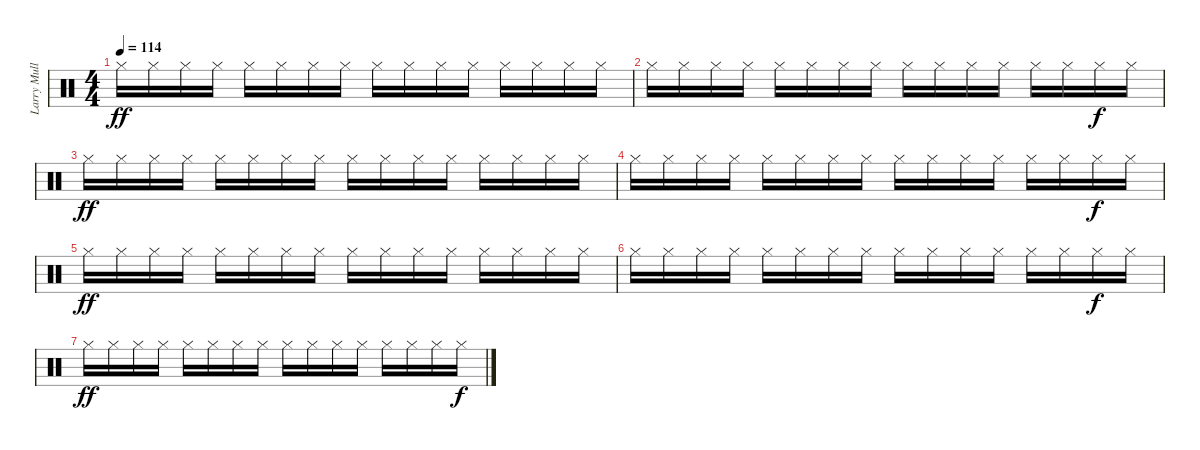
\track ("Larry Mullen Jr suplement for midi" "Larry Mull") {instrument percussion}
\staff {score}
\articulation defaults
\ts (4 4)
\tempo 114
\clef neutral
\ks c "Hi-Hat (closed)".16{dy ff} "Hi-Hat (closed)".16 "Hi-Hat (closed)".16 "Hi-Hat (closed)".16 "Hi-Hat (closed)".16 "Hi-Hat (closed)".16 "Hi-Hat (closed)".16 "Hi-Hat (closed)".16 "Hi-Hat (closed)".16 "Hi-Hat (closed)".16 "Hi-Hat (closed)".16 "Hi-Hat (closed)".16 "Hi-Hat (closed)".16 "Hi-Hat (closed)".16 "Hi-Hat (closed)".16 "Hi-Hat (closed)".16
|
"Hi-Hat (closed)".16 "Hi-Hat (closed)".16 "Hi-Hat (closed)".16 "Hi-Hat (closed)".16 "Hi-Hat (closed)".16 "Hi-Hat (closed)".16 "Hi-Hat (closed)".16 "Hi-Hat (closed)".16 "Hi-Hat (closed)".16 "Hi-Hat (closed)".16 "Hi-Hat (closed)".16 "Hi-Hat (closed)".16 "Hi-Hat (closed)".16 "Hi-Hat (closed)".16 "Hi-Hat (closed)".16{dy f} "Hi-Hat (closed)".16 |
"Hi-Hat (closed)".16{dy ff} "Hi-Hat (closed)".16 "Hi-Hat (closed)".16 "Hi-Hat (closed)".16 "Hi-Hat (closed)".16 "Hi-Hat (closed)".16 "Hi-Hat (closed)".16 "Hi-Hat (closed)".16 "Hi-Hat (closed)".16 "Hi-Hat (closed)".16 "Hi-Hat (closed)".16 "Hi-Hat (closed)".16 "Hi-Hat (closed)".16 "Hi-Hat (closed)".16 "Hi-Hat (closed)".16 "Hi-Hat (closed)".16 |
"Hi-Hat (closed)".16 "Hi-Hat (closed)".16 "Hi-Hat (closed)".16 "Hi-Hat (closed)".16 "Hi-Hat (closed)".16 "Hi-Hat (closed)".16 "Hi-Hat (closed)".16 "Hi-Hat (closed)".16 "Hi-Hat (closed)".16 "Hi-Hat (closed)".16 "Hi-Hat (closed)".16 "Hi-Hat (closed)".16 "Hi-Hat (closed)".16 "Hi-Hat (closed)".16 "Hi-Hat (closed)".16{dy f} "Hi-Hat (closed)".16 |
"Hi-Hat (closed)".16{dy ff} "Hi-Hat (closed)".16 "Hi-Hat (closed)".16 "Hi-Hat (closed)".16 "Hi-Hat (closed)".16 "Hi-Hat (closed)".16 "Hi-Hat (closed)".16 "Hi-Hat (closed)".16 "Hi-Hat (closed)".16 "Hi-Hat (closed)".16 "Hi-Hat (closed)".16 "Hi-Hat (closed)".16 "Hi-Hat (closed)".16 "Hi-Hat (closed)".16 "Hi-Hat (closed)".16 "Hi-Hat (closed)".16 |
"Hi-Hat (closed)".16 "Hi-Hat (closed)".16 "Hi-Hat (closed)".16 "Hi-Hat (closed)".16 "Hi-Hat (closed)".16 "Hi-Hat (closed)".16 "Hi-Hat (closed)".16 "Hi-Hat (closed)".16 "Hi-Hat (closed)".16 "Hi-Hat (closed)".16 "Hi-Hat (closed)".16 "Hi-Hat (closed)".16 "Hi-Hat (closed)".16 "Hi-Hat (closed)".16 "Hi-Hat (closed)".16{dy f} "Hi-Hat (closed)".16 |
"Hi-Hat (closed)".16{dy ff} "Hi-Hat (closed)".16 "Hi-Hat (closed)".16 "Hi-Hat (closed)".16 "Hi-Hat (closed)".16 "Hi-Hat (closed)".16 "Hi-Hat (closed)".16 "Hi-Hat (closed)".16 "Hi-Hat (closed)".16 "Hi-Hat (closed)".16 "Hi-Hat (closed)".16 "Hi-Hat (closed)".16 "Hi-Hat (closed)".16 "Hi-Hat (closed)".16 "Hi-Hat (closed)".16 "Hi-Hat (closed)".16{dy f}
